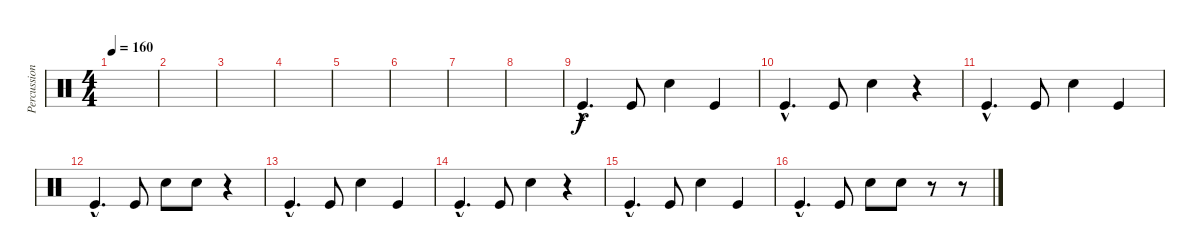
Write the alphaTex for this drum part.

\track ("Percussion" "Percussion") {instrument percussion}
\staff {score}
\articulation defaults
\ts (4 4)
\tempo 160
\clef neutral
\ks c
|
|
|
|
|
|
|
|
"Kick (hit)"{hac}.4{d} "Kick (hit)".8 "Electric Snare (hit)".4 "Kick (hit)".4 |
"Kick (hit)"{hac}.4{d} "Kick (hit)".8 "Electric Snare (hit)".4 r.4 |
"Kick (hit)"{hac}.4{d} "Kick (hit)".8 "Electric Snare (hit)".4 "Kick (hit)".4 |
"Kick (hit)"{hac}.4{d} "Kick (hit)".8 "Electric Snare (hit)".8 "Electric Snare (hit)".8 r.4 |
"Kick (hit)"{hac}.4{d} "Kick (hit)".8 "Electric Snare (hit)".4 "Kick (hit)".4 |
"Kick (hit)"{hac}.4{d} "Kick (hit)".8 "Electric Snare (hit)".4 r.4 |
"Kick (hit)"{hac}.4{d} "Kick (hit)".8 "Electric Snare (hit)".4 "Kick (hit)".4 |
"Kick (hit)"{hac}.4{d} "Kick (hit)".8 "Electric Snare (hit)".8 "Snare (hit) 2".8 r.8 r.8
